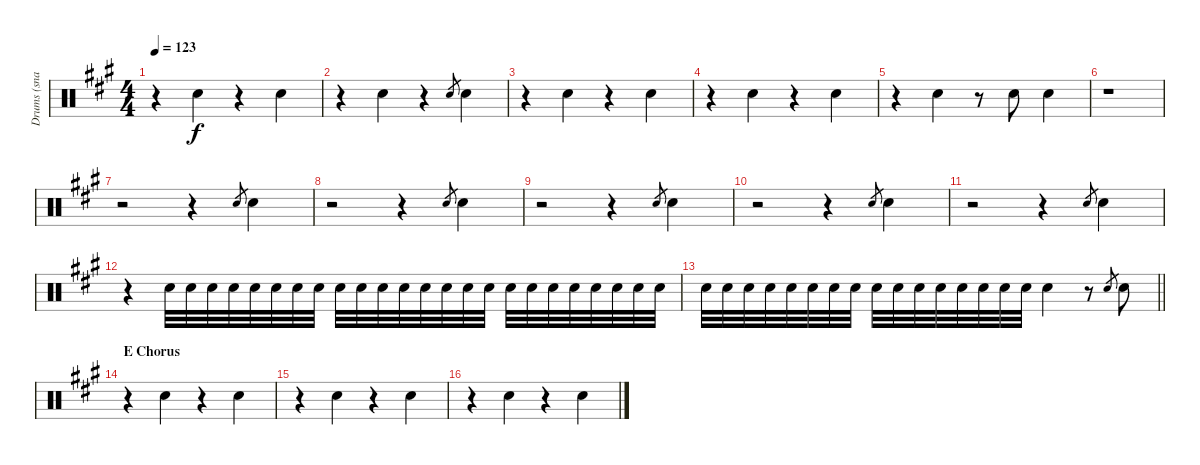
\track ("Drums (snare)" "Drums (sna") {instrument percussion}
\staff {score}
\articulation defaults
\ts (4 4)
\tempo 123
\clef neutral
\ks a
r.4{dy f} "Snare (hit) 2".4 r.4 "Snare (hit) 2".4 |
r.4 "Snare (hit) 2".4 r.4 "Snare (hit) 2".8{gr} "Snare (hit) 2".4 |
r.4 "Snare (hit) 2".4 r.4 "Snare (hit) 2".4 |
r.4 "Snare (hit) 2".4 r.4 "Snare (hit) 2".4 |
r.4 "Snare (hit) 2".4 r.8 "Snare (hit) 2".8 "Snare (hit) 2".4 |
r.1 |
r.2 r.4 "Snare (hit) 2".8{gr} "Snare (hit) 2".4 |
r.2 r.4 "Snare (hit) 2".8{gr} "Snare (hit) 2".4 |
r.2 r.4 "Snare (hit) 2".8{gr} "Snare (hit) 2".4 |
r.2 r.4 "Snare (hit) 2".8{gr} "Snare (hit) 2".4 |
r.2 r.4 "Snare (hit) 2".8{gr} "Snare (hit) 2".4 |
r.4 "Snare (hit) 2".32{volume 6} "Snare (hit) 2".32 "Snare (hit) 2".32 "Snare (hit) 2".32 "Snare (hit) 2".32 "Snare (hit) 2".32 "Snare (hit) 2".32 "Snare (hit) 2".32 "Snare (hit) 2".32 "Snare (hit) 2".32 "Snare (hit) 2".32 "Snare (hit) 2".32 "Snare (hit) 2".32 "Snare (hit) 2".32 "Snare (hit) 2".32 "Snare (hit) 2".32 "Snare (hit) 2".32 "Snare (hit) 2".32 "Snare (hit) 2".32 "Snare (hit) 2".32 "Snare (hit) 2".32 "Snare (hit) 2".32 "Snare (hit) 2".32 "Snare (hit) 2".32 |
\barLineRight lightlight "Snare (hit) 2".32 "Snare (hit) 2".32 "Snare (hit) 2".32 "Snare (hit) 2".32 "Snare (hit) 2".32 "Snare (hit) 2".32 "Snare (hit) 2".32 "Snare (hit) 2".32 "Snare (hit) 2".32 "Snare (hit) 2".32 "Snare (hit) 2".32 "Snare (hit) 2".32 "Snare (hit) 2".32 "Snare (hit) 2".32 "Snare (hit) 2".32 "Snare (hit) 2".32 "Snare (hit) 2".4{volume 15}
r.8 "Snare (hit) 2".8{gr} "Snare (hit) 2".8 |
\section ("" "E Chorus")
r.4 "Snare (hit) 2".4 r.4 "Snare (hit) 2".4 |
r.4 "Snare (hit) 2".4 r.4 "Snare (hit) 2".4 |
r.4 "Snare (hit) 2".4 r.4 "Snare (hit) 2".4
